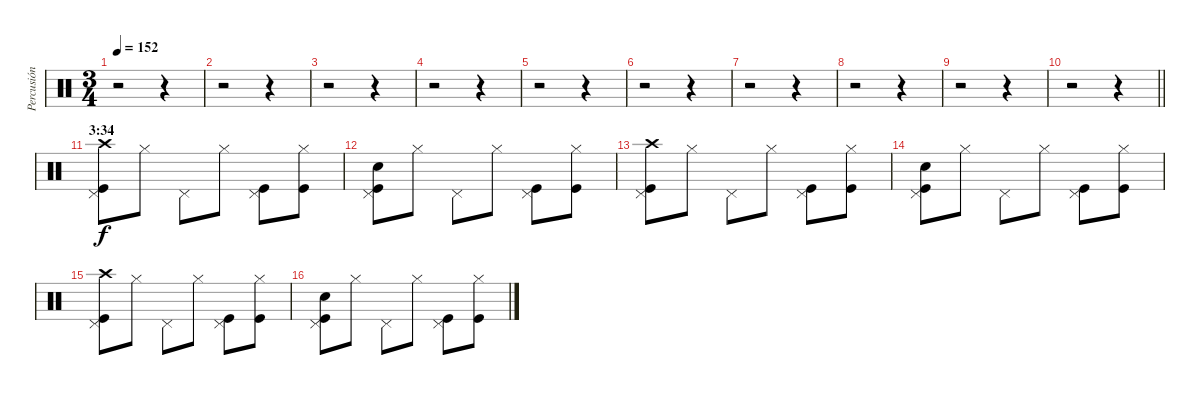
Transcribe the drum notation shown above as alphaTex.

\track ("Percusión" "Percusión") {instrument percussion}
\staff {score}
\articulation defaults
\ts (3 4)
\tempo 152
\clef neutral
\ks c
r.2{dy f} r.4 |
r.2 r.4 |
r.2 r.4 |
r.2 r.4 |
r.2 r.4 |
r.2 r.4 |
r.2 r.4 |
r.2 r.4 |
r.2 r.4 |
\barLineRight lightlight
r.2 r.4 |
\section ("" "3:34")
("Crash high (hit)" "Pedal Hi-Hat (hit)" "Kick (hit)").8 "Hi-Hat (closed)".8 "Pedal Hi-Hat (hit)".8 "Hi-Hat (closed)".8 ("Pedal Hi-Hat (hit)" "Kick (hit)").8 ("Hi-Hat (closed)" "Kick (hit)").8 |
("Pedal Hi-Hat (hit)" "Snare (hit) 2" "Kick (hit)").8 "Hi-Hat (closed)".8 "Pedal Hi-Hat (hit)".8 "Hi-Hat (closed)".8 ("Pedal Hi-Hat (hit)" "Kick (hit)").8 ("Hi-Hat (closed)" "Kick (hit)").8 |
("Crash high (hit)" "Pedal Hi-Hat (hit)" "Kick (hit)").8 "Hi-Hat (closed)".8 "Pedal Hi-Hat (hit)".8 "Hi-Hat (closed)".8 ("Pedal Hi-Hat (hit)" "Kick (hit)").8 ("Hi-Hat (closed)" "Kick (hit)").8 |
("Pedal Hi-Hat (hit)" "Snare (hit) 2" "Kick (hit)").8 "Hi-Hat (closed)".8 "Pedal Hi-Hat (hit)".8 "Hi-Hat (closed)".8 ("Pedal Hi-Hat (hit)" "Kick (hit)").8 ("Hi-Hat (closed)" "Kick (hit)").8 |
("Crash high (hit)" "Pedal Hi-Hat (hit)" "Kick (hit)").8 "Hi-Hat (closed)".8 "Pedal Hi-Hat (hit)".8 "Hi-Hat (closed)".8 ("Pedal Hi-Hat (hit)" "Kick (hit)").8 ("Hi-Hat (closed)" "Kick (hit)").8 |
("Pedal Hi-Hat (hit)" "Snare (hit) 2" "Kick (hit)").8 "Hi-Hat (closed)".8 "Pedal Hi-Hat (hit)".8 "Hi-Hat (closed)".8 ("Pedal Hi-Hat (hit)" "Kick (hit)").8 ("Hi-Hat (closed)" "Kick (hit)").8
